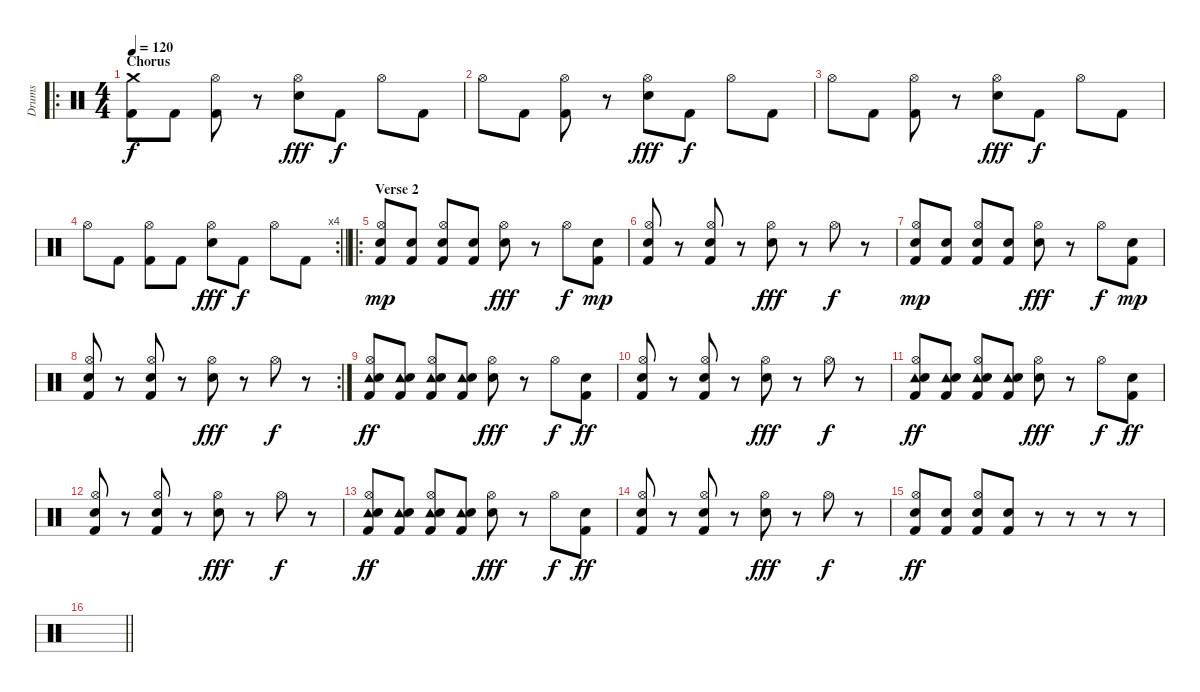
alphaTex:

\track ("Drums" "Drums") {instrument percussion}
\staff {score}
\articulation defaults
\ro
\ts (4 4)
\section ("" "Chorus")
\tempo 120
\clef neutral
\ks c
("Crash medium (hit)" "Kick (hit) 2").8{dy f} "Kick (hit) 2".8 ("Hi-Hat (open)" "Kick (hit) 2").8 r.8 ("Hi-Hat (open)" "Electric Snare (hit)").8{dy fff} "Kick (hit) 2".8{dy f} "Hi-Hat (open)".8 "Kick (hit) 2".8 |
"Hi-Hat (open)".8 "Kick (hit) 2".8 ("Hi-Hat (open)" "Kick (hit) 2").8 r.8 ("Hi-Hat (open)" "Electric Snare (hit)").8{dy fff} "Kick (hit) 2".8{dy f} "Hi-Hat (open)".8 "Kick (hit) 2".8 |
"Hi-Hat (open)".8 "Kick (hit) 2".8 ("Hi-Hat (open)" "Kick (hit) 2").8 r.8 ("Hi-Hat (open)" "Electric Snare (hit)").8{dy fff} "Kick (hit) 2".8{dy f} "Hi-Hat (open)".8 "Kick (hit) 2".8 |
\rc 4
\barLineRight lightlight "Hi-Hat (open)".8 "Kick (hit) 2".8
("Hi-Hat (open)" "Kick (hit) 2").8 "Kick (hit) 2".8 ("Hi-Hat (open)" "Electric Snare (hit)").8{dy fff} "Kick (hit) 2".8{dy f} "Hi-Hat (open)".8 "Kick (hit) 2".8 |
\ro
\section ("" "Verse 2")
("Hi-Hat (open)" "Electric Snare (hit)" "Kick (hit) 2").8{dy mp} ("Electric Snare (hit)" "Kick (hit) 2").8 ("Hi-Hat (open)" "Electric Snare (hit)" "Kick (hit) 2").8 ("Electric Snare (hit)" "Kick (hit) 2").8 ("Hi-Hat (open)" "Electric Snare (hit)").8{dy fff} r.8 "Hi-Hat (open)".8{dy f} ("Electric Snare (hit)" "Kick (hit) 2").8{dy mp} |
("Hi-Hat (open)" "Electric Snare (hit)" "Kick (hit) 2").8 r.8 ("Hi-Hat (open)" "Electric Snare (hit)" "Kick (hit) 2").8 r.8 ("Hi-Hat (open)" "Electric Snare (hit)").8{dy fff} r.8 "Hi-Hat (open)".8{dy f} r.8 |
("Hi-Hat (open)" "Electric Snare (hit)" "Kick (hit) 2").8{dy mp} ("Electric Snare (hit)" "Kick (hit) 2").8 ("Hi-Hat (open)" "Electric Snare (hit)" "Kick (hit) 2").8 ("Electric Snare (hit)" "Kick (hit) 2").8 ("Hi-Hat (open)" "Electric Snare (hit)").8{dy fff} r.8 "Hi-Hat (open)".8{dy f} ("Electric Snare (hit)" "Kick (hit) 2").8{dy mp} |
\rc 2
("Hi-Hat (open)" "Electric Snare (hit)" "Kick (hit) 2").8 r.8 ("Hi-Hat (open)" "Electric Snare (hit)" "Kick (hit) 2").8 r.8 ("Hi-Hat (open)" "Electric Snare (hit)").8{dy fff} r.8 "Hi-Hat (open)".8{dy f} r.8 |
("Hi-Hat (open)" "Tambourine (hit)" "Electric Snare (hit)" "Kick (hit) 2").8{dy ff} ("Tambourine (hit)" "Electric Snare (hit)" "Kick (hit) 2").8 ("Hi-Hat (open)" "Tambourine (hit)" "Electric Snare (hit)" "Kick (hit) 2").8 ("Tambourine (hit)" "Electric Snare (hit)" "Kick (hit) 2").8 ("Hi-Hat (open)" "Electric Snare (hit)").8{dy fff} r.8 "Hi-Hat (open)".8{dy f} ("Electric Snare (hit)" "Kick (hit) 2").8{dy ff} |
("Hi-Hat (open)" "Electric Snare (hit)" "Kick (hit) 2").8 r.8 ("Hi-Hat (open)" "Electric Snare (hit)" "Kick (hit) 2").8 r.8 ("Hi-Hat (open)" "Electric Snare (hit)").8{dy fff} r.8 "Hi-Hat (open)".8{dy f} r.8 |
("Hi-Hat (open)" "Tambourine (hit)" "Electric Snare (hit)" "Kick (hit) 2").8{dy ff} ("Tambourine (hit)" "Electric Snare (hit)" "Kick (hit) 2").8 ("Hi-Hat (open)" "Tambourine (hit)" "Electric Snare (hit)" "Kick (hit) 2").8 ("Tambourine (hit)" "Electric Snare (hit)" "Kick (hit) 2").8 ("Hi-Hat (open)" "Electric Snare (hit)").8{dy fff} r.8 "Hi-Hat (open)".8{dy f} ("Electric Snare (hit)" "Kick (hit) 2").8{dy ff} |
("Hi-Hat (open)" "Electric Snare (hit)" "Kick (hit) 2").8 r.8 ("Hi-Hat (open)" "Electric Snare (hit)" "Kick (hit) 2").8 r.8 ("Hi-Hat (open)" "Electric Snare (hit)").8{dy fff} r.8 "Hi-Hat (open)".8{dy f} r.8 |
("Hi-Hat (open)" "Tambourine (hit)" "Electric Snare (hit)" "Kick (hit) 2").8{dy ff} ("Tambourine (hit)" "Electric Snare (hit)" "Kick (hit) 2").8 ("Hi-Hat (open)" "Tambourine (hit)" "Electric Snare (hit)" "Kick (hit) 2").8 ("Tambourine (hit)" "Electric Snare (hit)" "Kick (hit) 2").8 ("Hi-Hat (open)" "Electric Snare (hit)").8{dy fff} r.8 "Hi-Hat (open)".8{dy f} ("Electric Snare (hit)" "Kick (hit) 2").8{dy ff} |
("Hi-Hat (open)" "Electric Snare (hit)" "Kick (hit) 2").8 r.8 ("Hi-Hat (open)" "Electric Snare (hit)" "Kick (hit) 2").8 r.8 ("Hi-Hat (open)" "Electric Snare (hit)").8{dy fff} r.8 "Hi-Hat (open)".8{dy f} r.8 |
("Hi-Hat (open)" "Electric Snare (hit)" "Kick (hit) 2").8{dy ff} ("Electric Snare (hit)" "Kick (hit) 2").8 ("Hi-Hat (open)" "Electric Snare (hit)" "Kick (hit) 2").8 ("Electric Snare (hit)" "Kick (hit) 2").8 r.8 r.8 r.8 r.8 |
\barLineRight lightlight
